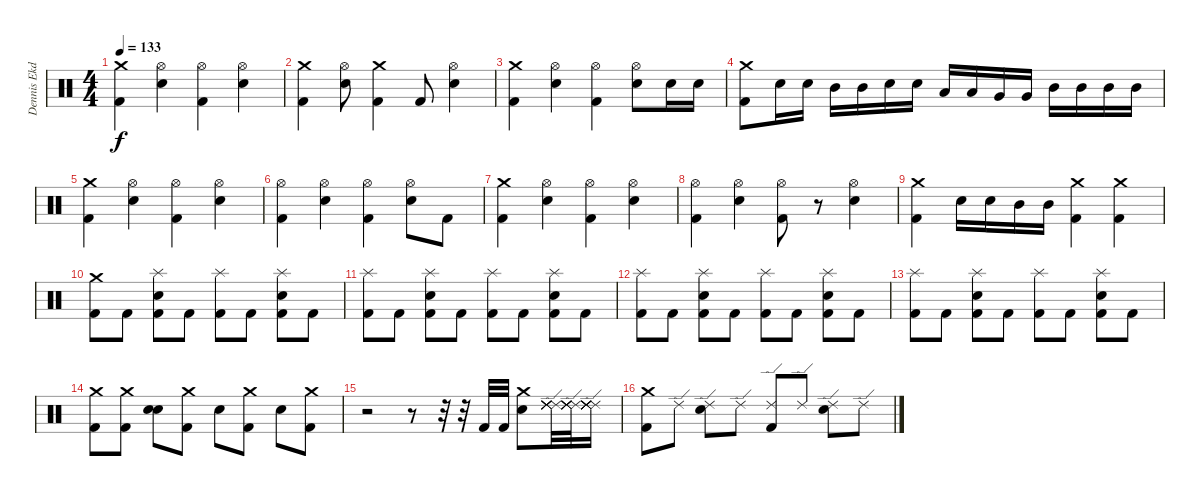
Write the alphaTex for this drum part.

\track ("Dennis Ekdahl" "Dennis Ekd") {instrument percussion}
\staff {score}
\articulation defaults
\ts (4 4)
\tempo 133
\clef neutral
\ks c
("Crash medium (hit)" "Kick (hit) 2").4{dy f} ("Hi-Hat (open)" "Snare (hit) 2").4 ("Hi-Hat (open)" "Kick (hit) 2").4 ("Hi-Hat (open)" "Snare (hit) 2").4 |
("Crash medium (hit)" "Kick (hit) 2").4 ("Hi-Hat (open)" "Snare (hit) 2").8 ("Crash medium (hit)" "Kick (hit) 2").4 "Kick (hit) 2".8 ("Hi-Hat (open)" "Snare (hit) 2").4 |
("Crash medium (hit)" "Kick (hit) 2").4 ("Hi-Hat (open)" "Snare (hit) 2").4 ("Hi-Hat (open)" "Kick (hit) 2").4 ("Hi-Hat (open)" "Snare (hit) 2").8 "Snare (hit) 2".16 "Snare (hit) 2".16 |
("Crash medium (hit)" "Kick (hit) 2").8 "Snare (hit) 2".16 "Snare (hit) 2".16 "Mid Tom (hit)".16 "Mid Tom (hit)".16 "Snare (hit) 2".16 "Snare (hit) 2".16 "Low Tom (hit)".16 "Low Tom (hit)".16 "Very Low Tom (hit)".16 "Very Low Tom (hit)".16 "Mid Tom (hit)".16 "Mid Tom (hit)".16 "Mid Tom (hit)".16 "Mid Tom (hit)".16 |
("Crash medium (hit)" "Kick (hit) 2").4 ("Hi-Hat (open)" "Snare (hit) 2").4 ("Hi-Hat (open)" "Kick (hit) 2").4 ("Hi-Hat (open)" "Snare (hit) 2").4 |
("Hi-Hat (open)" "Kick (hit) 2").4 ("Hi-Hat (open)" "Snare (hit) 2").4 ("Hi-Hat (open)" "Kick (hit) 2").4 ("Hi-Hat (open)" "Snare (hit) 2").8 "Kick (hit) 2".8 |
("Crash medium (hit)" "Kick (hit) 2").4 ("Hi-Hat (open)" "Snare (hit) 2").4 ("Hi-Hat (open)" "Kick (hit) 2").4 ("Hi-Hat (open)" "Snare (hit) 2").4 |
("Hi-Hat (open)" "Kick (hit) 2").4 ("Hi-Hat (open)" "Snare (hit) 2").4 ("Hi-Hat (open)" "Kick (hit) 2").8 r.8 ("Hi-Hat (open)" "Snare (hit) 2").4 |
("Crash medium (hit)" "Kick (hit) 2").4 "Snare (hit) 2".16 "Snare (hit) 2".16 "Mid Tom (hit)".16 "Mid Tom (hit)".16 ("Crash medium (hit)" "Kick (hit) 2").4 ("Crash medium (hit)" "Kick (hit) 2").4 |
("Crash medium (hit)" "Kick (hit) 2").8 "Kick (hit) 2".8 ("Splash (hit)" "Snare (hit) 2" "Kick (hit) 2").8 "Kick (hit) 2".8 ("Splash (hit)" "Kick (hit) 2").8 "Kick (hit) 2".8 ("Splash (hit)" "Snare (hit) 2" "Kick (hit) 2").8 "Kick (hit) 2".8 |
("Splash (hit)" "Kick (hit) 2").8 "Kick (hit) 2".8 ("Splash (hit)" "Snare (hit) 2" "Kick (hit) 2").8 "Kick (hit) 2".8 ("Splash (hit)" "Kick (hit) 2").8 "Kick (hit) 2".8 ("Splash (hit)" "Snare (hit) 2" "Kick (hit) 2").8 "Kick (hit) 2".8 |
("Splash (hit)" "Kick (hit) 2").8 "Kick (hit) 2".8 ("Splash (hit)" "Snare (hit) 2" "Kick (hit) 2").8 "Kick (hit) 2".8 ("Splash (hit)" "Kick (hit) 2").8 "Kick (hit) 2".8 ("Splash (hit)" "Snare (hit) 2" "Kick (hit) 2").8 "Kick (hit) 2".8 |
("Splash (hit)" "Kick (hit) 2").8 "Kick (hit) 2".8 ("Splash (hit)" "Snare (hit) 2" "Kick (hit) 2").8 "Kick (hit) 2".8 ("Splash (hit)" "Kick (hit) 2").8 "Kick (hit) 2".8 ("Splash (hit)" "Snare (hit) 2" "Kick (hit) 2").8 "Kick (hit) 2".8 |
("Crash medium (hit)" "Kick (hit) 2").8 ("Crash medium (hit)" "Kick (hit) 2").8 ("Snare (hit) 2" "Snare (hit) 2").8 ("Crash medium (hit)" "Kick (hit) 2").8 "Snare (hit) 2".8 ("Crash medium (hit)" "Kick (hit) 2").8 "Snare (hit) 2".8 ("Crash medium (hit)" "Kick (hit) 2").8 |
r.2 r.8 r.32 r.32 "Kick (hit) 2".32 "Kick (hit) 2".32 ("Crash medium (hit)" "Snare (hit) 2").8 ("Ride (edge) 2" "Ride (edge) 2" "Ride (edge) 2" "Ride (edge) 2" "Ride (edge) 2" "Ride (edge) 2").32{volume 16} ("Ride (edge) 2" "Ride (edge) 2" "Ride (edge) 2" "Ride (edge) 2" "Ride (edge) 2" "Ride (edge) 2").32 ("Ride (edge) 2" "Ride (edge) 2" "Ride (edge) 2" "Ride (edge) 2" "Ride (edge) 2" "Ride (edge) 2").16 |
("Crash medium (hit)" "Kick (hit) 2").8{volume 13} "Ride (edge) 2".8 ("Ride (edge) 2" "Snare (hit) 2").8 "Ride (edge) 2".8 ("Ride (edge) 2" "Kick (hit) 2").8 "Ride (edge) 2".8 ("Ride (edge) 2" "Snare (hit) 2").8 "Ride (edge) 2".8
